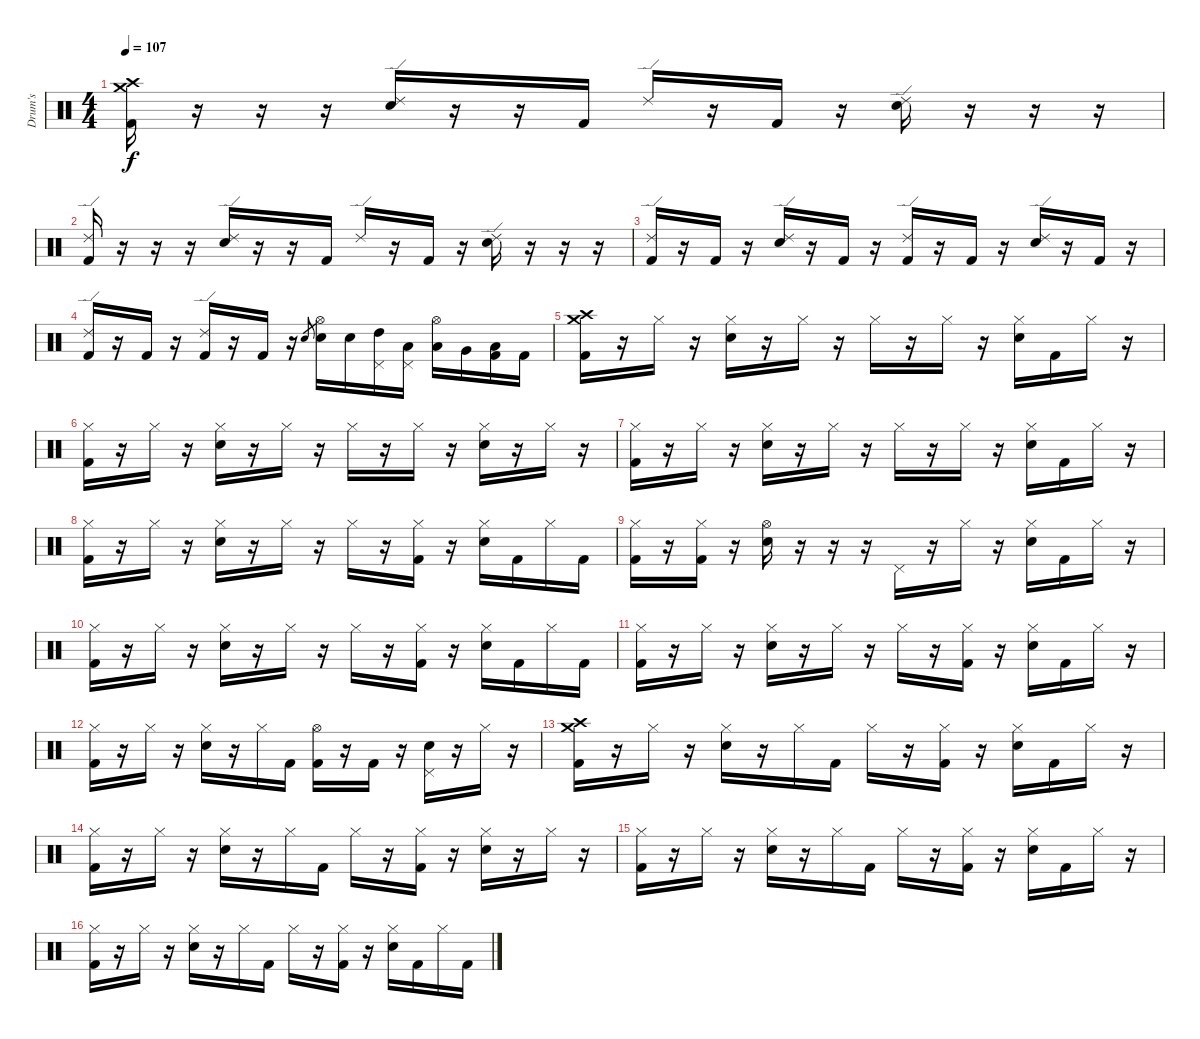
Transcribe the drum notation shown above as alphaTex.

\track ("Drum's" "Drum's") {instrument percussion}
\staff {score}
\articulation defaults
\ts (4 4)
\tempo 107
\clef neutral
\ks c
("Crash medium (hit)" "Crash high (hit)" "Kick (hit) 2").16{dy f} r.16 r.16 r.16 ("Ride (edge) 2" "Snare (hit) 2").16 r.16 r.16 "Kick (hit) 2".16 "Ride (edge) 2".16 r.16 "Kick (hit) 2".16 r.16 ("Ride (edge) 2" "Snare (hit) 2").16 r.16 r.16 r.16 |
("Ride (edge) 2" "Kick (hit) 2").16 r.16 r.16 r.16 ("Ride (edge) 2" "Snare (hit) 2").16 r.16 r.16 "Kick (hit) 2".16 "Ride (edge) 2".16 r.16 "Kick (hit) 2".16 r.16 ("Ride (edge) 2" "Snare (hit) 2").16 r.16 r.16 r.16 |
("Ride (edge) 2" "Kick (hit) 2").16 r.16 "Kick (hit) 2".16 r.16 ("Ride (edge) 2" "Snare (hit) 2").16 r.16 "Kick (hit) 2".16 r.16 ("Ride (edge) 2" "Kick (hit) 2").16 r.16 "Kick (hit) 2".16 r.16 ("Ride (edge) 2" "Snare (hit) 2").16 r.16 "Kick (hit) 2".16 r.16 |
("Ride (edge) 2" "Kick (hit) 2").16 r.16 "Kick (hit) 2".16 r.16 ("Ride (edge) 2" "Kick (hit) 2").16 r.16 "Kick (hit) 2".16 r.16 "Snare (hit) 2".8{gr} ("Hi-Hat (open)" "Snare (hit) 2").16 "Snare (hit) 2".16 ("Pedal Hi-Hat (hit)" "High Tom (hit)").16 ("Pedal Hi-Hat (hit)" "Low Tom (hit)").16 ("Hi-Hat (open)" "Low Floor Tom (hit)").16 "Very Low Tom (hit)".16 ("Low Floor Tom (hit)" "Kick (hit) 2").16 "Kick (hit) 2".16 |
("Crash medium (hit)" "Crash high (hit)" "Kick (hit) 2").16 r.16 "Hi-Hat (closed)".16 r.16 ("Hi-Hat (closed)" "Snare (hit) 2").16 r.16 "Hi-Hat (closed)".16 r.16 "Hi-Hat (closed)".16 r.16 "Hi-Hat (closed)".16 r.16 ("Hi-Hat (closed)" "Snare (hit) 2").16 "Kick (hit) 2".16 "Hi-Hat (closed)".16 r.16 |
("Hi-Hat (closed)" "Kick (hit) 2").16 r.16 "Hi-Hat (closed)".16 r.16 ("Hi-Hat (closed)" "Snare (hit) 2").16 r.16 "Hi-Hat (closed)".16 r.16 "Hi-Hat (closed)".16 r.16 "Hi-Hat (closed)".16 r.16 ("Hi-Hat (closed)" "Snare (hit) 2").16 r.16 "Hi-Hat (closed)".16 r.16 |
("Hi-Hat (closed)" "Kick (hit) 2").16 r.16 "Hi-Hat (closed)".16 r.16 ("Hi-Hat (closed)" "Snare (hit) 2").16 r.16 "Hi-Hat (closed)".16 r.16 "Hi-Hat (closed)".16 r.16 "Hi-Hat (closed)".16 r.16 ("Hi-Hat (closed)" "Snare (hit) 2").16 "Kick (hit) 2".16 "Hi-Hat (closed)".16 r.16 |
("Hi-Hat (closed)" "Kick (hit) 2").16 r.16 "Hi-Hat (closed)".16 r.16 ("Hi-Hat (closed)" "Snare (hit) 2").16 r.16 "Hi-Hat (closed)".16 r.16 "Hi-Hat (closed)".16 r.16 ("Hi-Hat (closed)" "Kick (hit) 2").16 r.16 ("Hi-Hat (closed)" "Snare (hit) 2").16 "Kick (hit) 2".16 "Hi-Hat (closed)".16 "Kick (hit) 2".16 |
("Hi-Hat (closed)" "Kick (hit) 2").16 r.16 ("Hi-Hat (closed)" "Kick (hit) 2").16 r.16 ("Hi-Hat (open)" "Snare (hit) 2").16 r.16 r.16 r.16 "Pedal Hi-Hat (hit)".16 r.16 "Hi-Hat (closed)".16 r.16 ("Hi-Hat (closed)" "Snare (hit) 2").16 "Kick (hit) 2".16 "Hi-Hat (closed)".16 r.16 |
("Hi-Hat (closed)" "Kick (hit) 2").16 r.16 "Hi-Hat (closed)".16 r.16 ("Hi-Hat (closed)" "Snare (hit) 2").16 r.16 "Hi-Hat (closed)".16 r.16 "Hi-Hat (closed)".16 r.16 ("Hi-Hat (closed)" "Kick (hit) 2").16 r.16 ("Hi-Hat (closed)" "Snare (hit) 2").16 "Kick (hit) 2".16 "Hi-Hat (closed)".16 "Kick (hit) 2".16 |
("Hi-Hat (closed)" "Kick (hit) 2").16 r.16 "Hi-Hat (closed)".16 r.16 ("Hi-Hat (closed)" "Snare (hit) 2").16 r.16 "Hi-Hat (closed)".16 r.16 "Hi-Hat (closed)".16 r.16 ("Hi-Hat (closed)" "Kick (hit) 2").16 r.16 ("Hi-Hat (closed)" "Snare (hit) 2").16 "Kick (hit) 2".16 "Hi-Hat (closed)".16 r.16 |
("Hi-Hat (closed)" "Kick (hit) 2").16 r.16 "Hi-Hat (closed)".16 r.16 ("Hi-Hat (closed)" "Snare (hit) 2").16 r.16 "Hi-Hat (closed)".16 "Kick (hit) 2".16 ("Hi-Hat (open)" "Kick (hit) 2").16 r.16 "Kick (hit) 2".16 r.16 ("Pedal Hi-Hat (hit)" "Snare (hit) 2").16 r.16 "Hi-Hat (closed)".16 r.16 |
("Crash medium (hit)" "Crash high (hit)" "Kick (hit) 2").16 r.16 "Hi-Hat (closed)".16 r.16 ("Hi-Hat (closed)" "Snare (hit) 2").16 r.16 "Hi-Hat (closed)".16 "Kick (hit) 2".16 "Hi-Hat (closed)".16 r.16 ("Hi-Hat (closed)" "Kick (hit) 2").16 r.16 ("Hi-Hat (closed)" "Snare (hit) 2").16 "Kick (hit) 2".16 "Hi-Hat (closed)".16 r.16 |
("Hi-Hat (closed)" "Kick (hit) 2").16 r.16 "Hi-Hat (closed)".16 r.16 ("Hi-Hat (closed)" "Snare (hit) 2").16 r.16 "Hi-Hat (closed)".16 "Kick (hit) 2".16 "Hi-Hat (closed)".16 r.16 ("Hi-Hat (closed)" "Kick (hit) 2").16 r.16 ("Hi-Hat (closed)" "Snare (hit) 2").16 r.16 "Hi-Hat (closed)".16 r.16 |
("Hi-Hat (closed)" "Kick (hit) 2").16 r.16 "Hi-Hat (closed)".16 r.16 ("Hi-Hat (closed)" "Snare (hit) 2").16 r.16 "Hi-Hat (closed)".16 "Kick (hit) 2".16 "Hi-Hat (closed)".16 r.16 ("Hi-Hat (closed)" "Kick (hit) 2").16 r.16 ("Hi-Hat (closed)" "Snare (hit) 2").16 "Kick (hit) 2".16 "Hi-Hat (closed)".16 r.16 |
("Hi-Hat (closed)" "Kick (hit) 2").16 r.16 "Hi-Hat (closed)".16 r.16 ("Hi-Hat (closed)" "Snare (hit) 2").16 r.16 "Hi-Hat (closed)".16 "Kick (hit) 2".16 "Hi-Hat (closed)".16 r.16 ("Hi-Hat (closed)" "Kick (hit) 2").16 r.16 ("Hi-Hat (closed)" "Snare (hit) 2").16 "Kick (hit) 2".16 "Hi-Hat (closed)".16 "Kick (hit) 2".16
